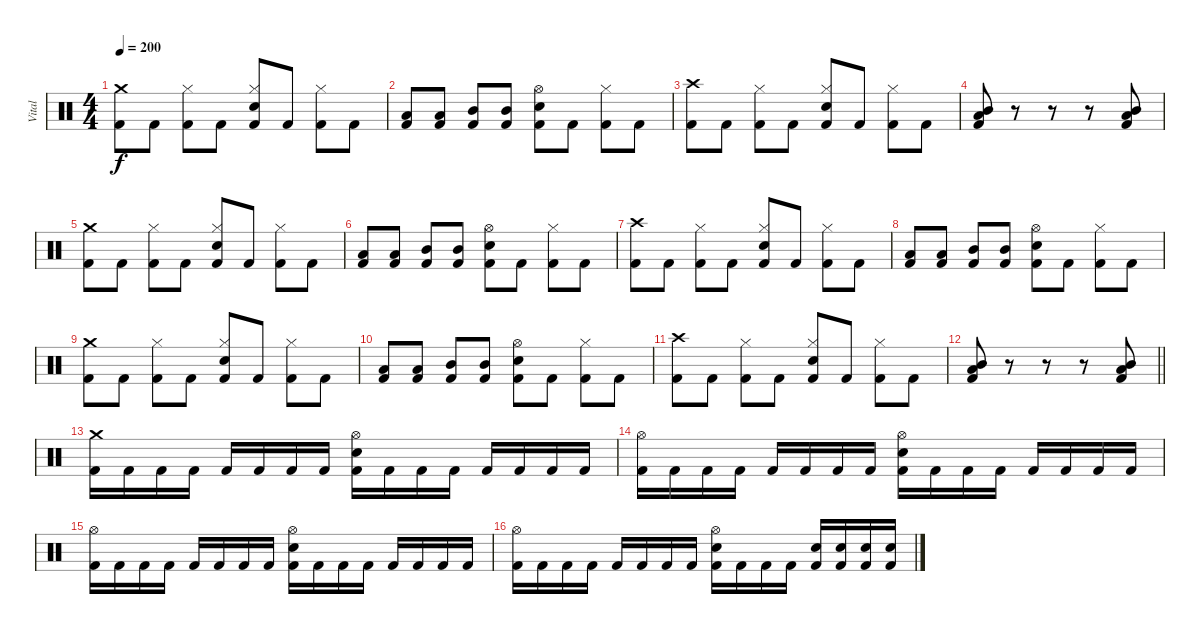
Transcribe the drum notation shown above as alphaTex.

\track ("Vital" "Vital") {instrument percussion}
\staff {score}
\articulation defaults
\ts (4 4)
\tempo 200
\clef neutral
\ks c
("Crash medium (hit)" "Kick (hit) 2").8{dy f} "Kick (hit) 2".8 ("Hi-Hat (closed)" "Kick (hit) 2").8 "Kick (hit) 2".8 ("Hi-Hat (closed)" "Snare (hit) 2" "Kick (hit) 2").8 "Kick (hit) 2".8 ("Hi-Hat (closed)" "Kick (hit) 2").8 "Kick (hit) 2".8 |
("Low Tom (hit)" "Kick (hit) 2").8 ("Low Tom (hit)" "Kick (hit) 2").8 ("Mid Tom (hit)" "Kick (hit) 2").8 ("Mid Tom (hit)" "Kick (hit) 2").8 ("Hi-Hat (open)" "Snare (hit) 2" "Kick (hit) 2").8 "Kick (hit) 2".8 ("Hi-Hat (closed)" "Kick (hit) 2").8 "Kick (hit) 2".8 |
("Crash high (hit)" "Kick (hit) 2").8 "Kick (hit) 2".8 ("Hi-Hat (closed)" "Kick (hit) 2").8 "Kick (hit) 2".8 ("Hi-Hat (closed)" "Snare (hit) 2" "Kick (hit) 2").8 "Kick (hit) 2".8 ("Hi-Hat (closed)" "Kick (hit) 2").8 "Kick (hit) 2".8 |
("Low Tom (hit)" "Mid Tom (hit)" "Kick (hit) 2").8 r.8 r.8 r.8 ("Low Tom (hit)" "Mid Tom (hit)" "Kick (hit) 2").8 |
("Crash medium (hit)" "Kick (hit) 2").8 "Kick (hit) 2".8 ("Hi-Hat (closed)" "Kick (hit) 2").8 "Kick (hit) 2".8 ("Hi-Hat (closed)" "Snare (hit) 2" "Kick (hit) 2").8 "Kick (hit) 2".8 ("Hi-Hat (closed)" "Kick (hit) 2").8 "Kick (hit) 2".8 |
("Low Tom (hit)" "Kick (hit) 2").8 ("Low Tom (hit)" "Kick (hit) 2").8 ("Mid Tom (hit)" "Kick (hit) 2").8 ("Mid Tom (hit)" "Kick (hit) 2").8 ("Hi-Hat (open)" "Snare (hit) 2" "Kick (hit) 2").8 "Kick (hit) 2".8 ("Hi-Hat (closed)" "Kick (hit) 2").8 "Kick (hit) 2".8 |
("Crash high (hit)" "Kick (hit) 2").8 "Kick (hit) 2".8 ("Hi-Hat (closed)" "Kick (hit) 2").8 "Kick (hit) 2".8 ("Hi-Hat (closed)" "Snare (hit) 2" "Kick (hit) 2").8 "Kick (hit) 2".8 ("Hi-Hat (closed)" "Kick (hit) 2").8 "Kick (hit) 2".8 |
("Low Tom (hit)" "Kick (hit) 2").8 ("Low Tom (hit)" "Kick (hit) 2").8 ("Mid Tom (hit)" "Kick (hit) 2").8 ("Mid Tom (hit)" "Kick (hit) 2").8 ("Hi-Hat (open)" "Snare (hit) 2" "Kick (hit) 2").8 "Kick (hit) 2".8 ("Hi-Hat (closed)" "Kick (hit) 2").8 "Kick (hit) 2".8 |
("Crash medium (hit)" "Kick (hit) 2").8 "Kick (hit) 2".8 ("Hi-Hat (closed)" "Kick (hit) 2").8 "Kick (hit) 2".8 ("Hi-Hat (closed)" "Snare (hit) 2" "Kick (hit) 2").8 "Kick (hit) 2".8 ("Hi-Hat (closed)" "Kick (hit) 2").8 "Kick (hit) 2".8 |
("Low Tom (hit)" "Kick (hit) 2").8 ("Low Tom (hit)" "Kick (hit) 2").8 ("Mid Tom (hit)" "Kick (hit) 2").8 ("Mid Tom (hit)" "Kick (hit) 2").8 ("Hi-Hat (open)" "Snare (hit) 2" "Kick (hit) 2").8 "Kick (hit) 2".8 ("Hi-Hat (closed)" "Kick (hit) 2").8 "Kick (hit) 2".8 |
("Crash high (hit)" "Kick (hit) 2").8 "Kick (hit) 2".8 ("Hi-Hat (closed)" "Kick (hit) 2").8 "Kick (hit) 2".8 ("Hi-Hat (closed)" "Snare (hit) 2" "Kick (hit) 2").8 "Kick (hit) 2".8 ("Hi-Hat (closed)" "Kick (hit) 2").8 "Kick (hit) 2".8 |
\barLineRight lightlight
("Low Tom (hit)" "Mid Tom (hit)" "Kick (hit) 2").8 r.8 r.8 r.8 ("Low Tom (hit)" "Mid Tom (hit)" "Kick (hit) 2").8 |
("Crash medium (hit)" "Kick (hit) 2").16 "Kick (hit) 2".16 "Kick (hit) 2".16 "Kick (hit) 2".16 "Kick (hit) 2".16 "Kick (hit) 2".16 "Kick (hit) 2".16 "Kick (hit) 2".16 ("Hi-Hat (open)" "Snare (hit) 2" "Kick (hit) 2").16 "Kick (hit) 2".16 "Kick (hit) 2".16 "Kick (hit) 2".16 "Kick (hit) 2".16 "Kick (hit) 2".16 "Kick (hit) 2".16 "Kick (hit) 2".16 |
("Hi-Hat (open)" "Kick (hit) 2").16 "Kick (hit) 2".16 "Kick (hit) 2".16 "Kick (hit) 2".16 "Kick (hit) 2".16 "Kick (hit) 2".16 "Kick (hit) 2".16 "Kick (hit) 2".16 ("Hi-Hat (open)" "Snare (hit) 2" "Kick (hit) 2").16 "Kick (hit) 2".16 "Kick (hit) 2".16 "Kick (hit) 2".16 "Kick (hit) 2".16 "Kick (hit) 2".16 "Kick (hit) 2".16 "Kick (hit) 2".16 |
("Hi-Hat (open)" "Kick (hit) 2").16 "Kick (hit) 2".16 "Kick (hit) 2".16 "Kick (hit) 2".16 "Kick (hit) 2".16 "Kick (hit) 2".16 "Kick (hit) 2".16 "Kick (hit) 2".16 ("Hi-Hat (open)" "Snare (hit) 2" "Kick (hit) 2").16 "Kick (hit) 2".16 "Kick (hit) 2".16 "Kick (hit) 2".16 "Kick (hit) 2".16 "Kick (hit) 2".16 "Kick (hit) 2".16 "Kick (hit) 2".16 |
("Hi-Hat (open)" "Kick (hit) 2").16 "Kick (hit) 2".16 "Kick (hit) 2".16 "Kick (hit) 2".16 "Kick (hit) 2".16 "Kick (hit) 2".16 "Kick (hit) 2".16 "Kick (hit) 2".16 ("Hi-Hat (open)" "Snare (hit) 2" "Kick (hit) 2").16 "Kick (hit) 2".16 "Kick (hit) 2".16 "Kick (hit) 2".16 ("Snare (hit) 2" "Kick (hit) 2").16 ("Snare (hit) 2" "Kick (hit) 2").16 ("Snare (hit) 2" "Kick (hit) 2").16 ("Snare (hit) 2" "Kick (hit) 2").16
